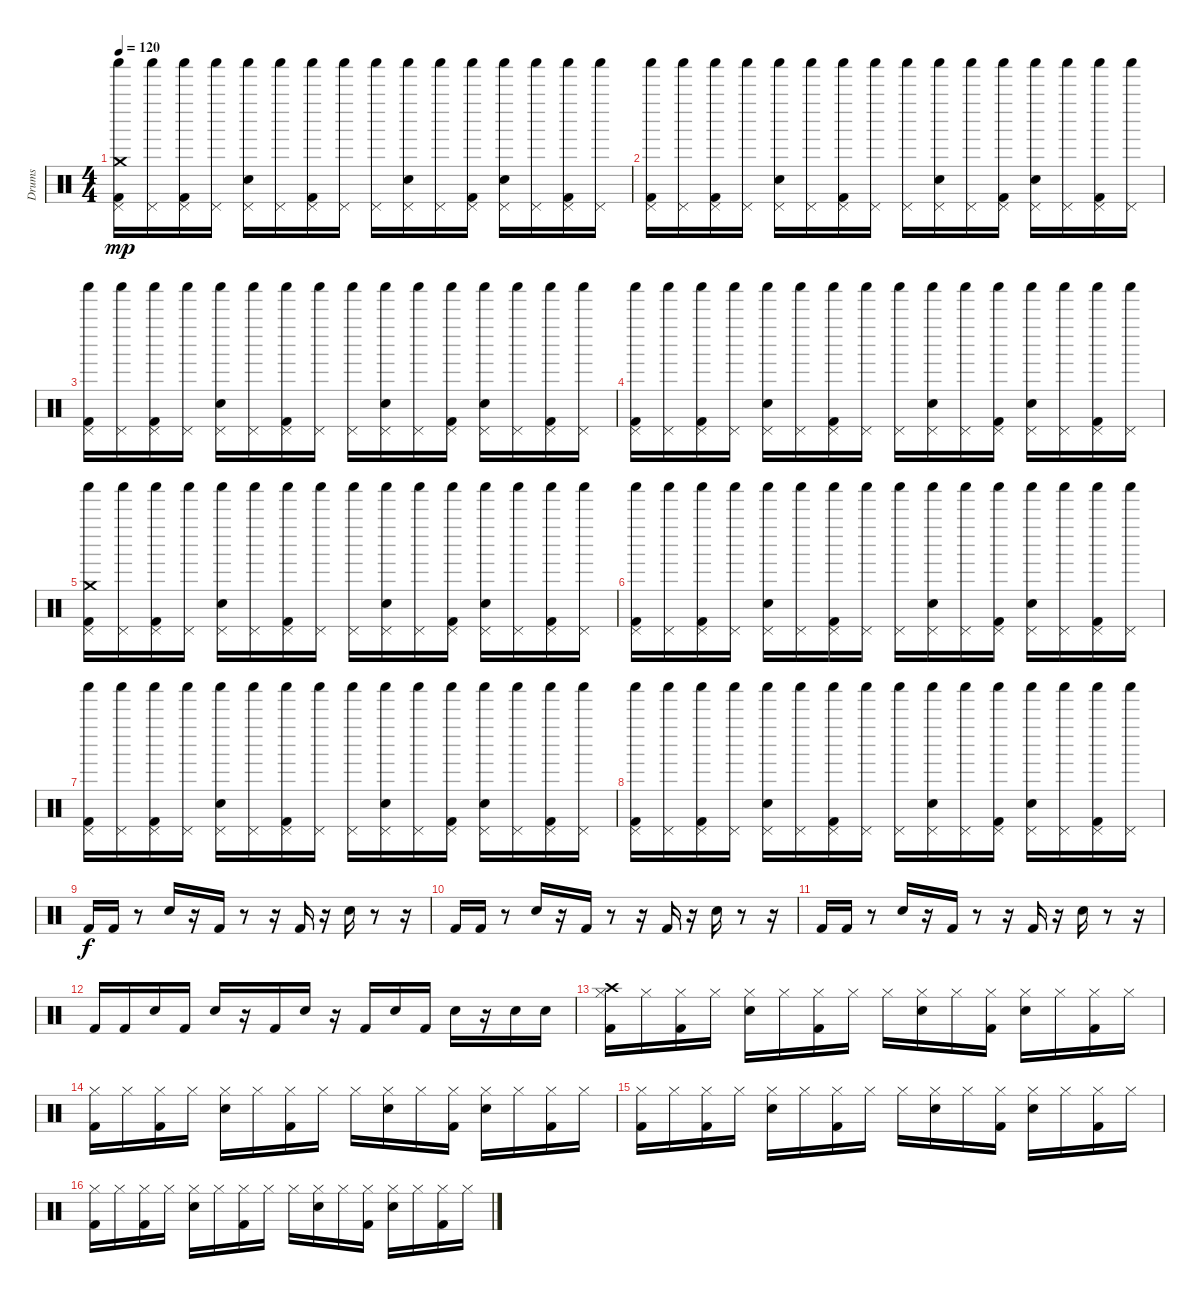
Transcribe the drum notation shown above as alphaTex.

\track ("Drums" "Drums") {instrument percussion}
\staff {score}
\articulation defaults
\ts (4 4)
\tempo 120
\clef neutral
\ks c
("Shaker (hit)" "Pedal Hi-Hat (hit)" "Crash medium (hit)" "Kick (hit) 2").16{dy mp} ("Shaker (hit)" "Pedal Hi-Hat (hit)").16 ("Shaker (hit)" "Pedal Hi-Hat (hit)" "Kick (hit) 2").16 ("Shaker (hit)" "Pedal Hi-Hat (hit)").16 ("Shaker (hit)" "Pedal Hi-Hat (hit)" "Electric Snare (hit)").16 ("Shaker (hit)" "Pedal Hi-Hat (hit)").16 ("Shaker (hit)" "Pedal Hi-Hat (hit)" "Kick (hit) 2").16 ("Shaker (hit)" "Pedal Hi-Hat (hit)").16 ("Shaker (hit)" "Pedal Hi-Hat (hit)").16 ("Shaker (hit)" "Pedal Hi-Hat (hit)" "Electric Snare (hit)").16 ("Shaker (hit)" "Pedal Hi-Hat (hit)").16 ("Shaker (hit)" "Pedal Hi-Hat (hit)" "Kick (hit) 2").16 ("Shaker (hit)" "Pedal Hi-Hat (hit)" "Electric Snare (hit)").16 ("Shaker (hit)" "Pedal Hi-Hat (hit)").16 ("Shaker (hit)" "Pedal Hi-Hat (hit)" "Kick (hit) 2").16 ("Shaker (hit)" "Pedal Hi-Hat (hit)").16 |
("Shaker (hit)" "Pedal Hi-Hat (hit)" "Kick (hit) 2").16 ("Shaker (hit)" "Pedal Hi-Hat (hit)").16 ("Shaker (hit)" "Pedal Hi-Hat (hit)" "Kick (hit) 2").16 ("Shaker (hit)" "Pedal Hi-Hat (hit)").16 ("Shaker (hit)" "Pedal Hi-Hat (hit)" "Electric Snare (hit)").16 ("Shaker (hit)" "Pedal Hi-Hat (hit)").16 ("Shaker (hit)" "Pedal Hi-Hat (hit)" "Kick (hit) 2").16 ("Shaker (hit)" "Pedal Hi-Hat (hit)").16 ("Shaker (hit)" "Pedal Hi-Hat (hit)").16 ("Shaker (hit)" "Pedal Hi-Hat (hit)" "Electric Snare (hit)").16 ("Shaker (hit)" "Pedal Hi-Hat (hit)").16 ("Shaker (hit)" "Pedal Hi-Hat (hit)" "Kick (hit) 2").16 ("Shaker (hit)" "Pedal Hi-Hat (hit)" "Electric Snare (hit)").16 ("Shaker (hit)" "Pedal Hi-Hat (hit)").16 ("Shaker (hit)" "Pedal Hi-Hat (hit)" "Kick (hit) 2").16 ("Shaker (hit)" "Pedal Hi-Hat (hit)").16 |
("Shaker (hit)" "Pedal Hi-Hat (hit)" "Kick (hit) 2").16 ("Shaker (hit)" "Pedal Hi-Hat (hit)").16 ("Shaker (hit)" "Pedal Hi-Hat (hit)" "Kick (hit) 2").16 ("Shaker (hit)" "Pedal Hi-Hat (hit)").16 ("Shaker (hit)" "Pedal Hi-Hat (hit)" "Electric Snare (hit)").16 ("Shaker (hit)" "Pedal Hi-Hat (hit)").16 ("Shaker (hit)" "Pedal Hi-Hat (hit)" "Kick (hit) 2").16 ("Shaker (hit)" "Pedal Hi-Hat (hit)").16 ("Shaker (hit)" "Pedal Hi-Hat (hit)").16 ("Shaker (hit)" "Pedal Hi-Hat (hit)" "Electric Snare (hit)").16 ("Shaker (hit)" "Pedal Hi-Hat (hit)").16 ("Shaker (hit)" "Pedal Hi-Hat (hit)" "Kick (hit) 2").16 ("Shaker (hit)" "Pedal Hi-Hat (hit)" "Electric Snare (hit)").16 ("Shaker (hit)" "Pedal Hi-Hat (hit)").16 ("Shaker (hit)" "Pedal Hi-Hat (hit)" "Kick (hit) 2").16 ("Shaker (hit)" "Pedal Hi-Hat (hit)").16 |
("Shaker (hit)" "Pedal Hi-Hat (hit)" "Kick (hit) 2").16 ("Shaker (hit)" "Pedal Hi-Hat (hit)").16 ("Shaker (hit)" "Pedal Hi-Hat (hit)" "Kick (hit) 2").16 ("Shaker (hit)" "Pedal Hi-Hat (hit)").16 ("Shaker (hit)" "Pedal Hi-Hat (hit)" "Electric Snare (hit)").16 ("Shaker (hit)" "Pedal Hi-Hat (hit)").16 ("Shaker (hit)" "Pedal Hi-Hat (hit)" "Kick (hit) 2").16 ("Shaker (hit)" "Pedal Hi-Hat (hit)").16 ("Shaker (hit)" "Pedal Hi-Hat (hit)").16 ("Shaker (hit)" "Pedal Hi-Hat (hit)" "Electric Snare (hit)").16 ("Shaker (hit)" "Pedal Hi-Hat (hit)").16 ("Shaker (hit)" "Pedal Hi-Hat (hit)" "Kick (hit) 2").16 ("Shaker (hit)" "Pedal Hi-Hat (hit)" "Electric Snare (hit)").16 ("Shaker (hit)" "Pedal Hi-Hat (hit)").16 ("Shaker (hit)" "Pedal Hi-Hat (hit)" "Kick (hit) 2").16 ("Shaker (hit)" "Pedal Hi-Hat (hit)").16 |
("Shaker (hit)" "Pedal Hi-Hat (hit)" "Crash medium (hit)" "Kick (hit) 2").16 ("Shaker (hit)" "Pedal Hi-Hat (hit)").16 ("Shaker (hit)" "Pedal Hi-Hat (hit)" "Kick (hit) 2").16 ("Shaker (hit)" "Pedal Hi-Hat (hit)").16 ("Shaker (hit)" "Pedal Hi-Hat (hit)" "Electric Snare (hit)").16 ("Shaker (hit)" "Pedal Hi-Hat (hit)").16 ("Shaker (hit)" "Pedal Hi-Hat (hit)" "Kick (hit) 2").16 ("Shaker (hit)" "Pedal Hi-Hat (hit)").16 ("Shaker (hit)" "Pedal Hi-Hat (hit)").16 ("Shaker (hit)" "Pedal Hi-Hat (hit)" "Electric Snare (hit)").16 ("Shaker (hit)" "Pedal Hi-Hat (hit)").16 ("Shaker (hit)" "Pedal Hi-Hat (hit)" "Kick (hit) 2").16 ("Shaker (hit)" "Pedal Hi-Hat (hit)" "Electric Snare (hit)").16 ("Shaker (hit)" "Pedal Hi-Hat (hit)").16 ("Shaker (hit)" "Pedal Hi-Hat (hit)" "Kick (hit) 2").16 ("Shaker (hit)" "Pedal Hi-Hat (hit)").16 |
("Shaker (hit)" "Pedal Hi-Hat (hit)" "Kick (hit) 2").16 ("Shaker (hit)" "Pedal Hi-Hat (hit)").16 ("Shaker (hit)" "Pedal Hi-Hat (hit)" "Kick (hit) 2").16 ("Shaker (hit)" "Pedal Hi-Hat (hit)").16 ("Shaker (hit)" "Pedal Hi-Hat (hit)" "Electric Snare (hit)").16 ("Shaker (hit)" "Pedal Hi-Hat (hit)").16 ("Shaker (hit)" "Pedal Hi-Hat (hit)" "Kick (hit) 2").16 ("Shaker (hit)" "Pedal Hi-Hat (hit)").16 ("Shaker (hit)" "Pedal Hi-Hat (hit)").16 ("Shaker (hit)" "Pedal Hi-Hat (hit)" "Electric Snare (hit)").16 ("Shaker (hit)" "Pedal Hi-Hat (hit)").16 ("Shaker (hit)" "Pedal Hi-Hat (hit)" "Kick (hit) 2").16 ("Shaker (hit)" "Pedal Hi-Hat (hit)" "Electric Snare (hit)").16 ("Shaker (hit)" "Pedal Hi-Hat (hit)").16 ("Shaker (hit)" "Pedal Hi-Hat (hit)" "Kick (hit) 2").16 ("Shaker (hit)" "Pedal Hi-Hat (hit)").16 |
("Shaker (hit)" "Pedal Hi-Hat (hit)" "Kick (hit) 2").16 ("Shaker (hit)" "Pedal Hi-Hat (hit)").16 ("Shaker (hit)" "Pedal Hi-Hat (hit)" "Kick (hit) 2").16 ("Shaker (hit)" "Pedal Hi-Hat (hit)").16 ("Shaker (hit)" "Pedal Hi-Hat (hit)" "Electric Snare (hit)").16 ("Shaker (hit)" "Pedal Hi-Hat (hit)").16 ("Shaker (hit)" "Pedal Hi-Hat (hit)" "Kick (hit) 2").16 ("Shaker (hit)" "Pedal Hi-Hat (hit)").16 ("Shaker (hit)" "Pedal Hi-Hat (hit)").16 ("Shaker (hit)" "Pedal Hi-Hat (hit)" "Electric Snare (hit)").16 ("Shaker (hit)" "Pedal Hi-Hat (hit)").16 ("Shaker (hit)" "Pedal Hi-Hat (hit)" "Kick (hit) 2").16 ("Shaker (hit)" "Pedal Hi-Hat (hit)" "Electric Snare (hit)").16 ("Shaker (hit)" "Pedal Hi-Hat (hit)").16 ("Shaker (hit)" "Pedal Hi-Hat (hit)" "Kick (hit) 2").16 ("Shaker (hit)" "Pedal Hi-Hat (hit)").16 |
("Shaker (hit)" "Pedal Hi-Hat (hit)" "Kick (hit) 2").16 ("Shaker (hit)" "Pedal Hi-Hat (hit)").16 ("Shaker (hit)" "Pedal Hi-Hat (hit)" "Kick (hit) 2").16 ("Shaker (hit)" "Pedal Hi-Hat (hit)").16 ("Shaker (hit)" "Pedal Hi-Hat (hit)" "Electric Snare (hit)").16 ("Shaker (hit)" "Pedal Hi-Hat (hit)").16 ("Shaker (hit)" "Pedal Hi-Hat (hit)" "Kick (hit) 2").16 ("Shaker (hit)" "Pedal Hi-Hat (hit)").16 ("Shaker (hit)" "Pedal Hi-Hat (hit)").16 ("Shaker (hit)" "Pedal Hi-Hat (hit)" "Electric Snare (hit)").16 ("Shaker (hit)" "Pedal Hi-Hat (hit)").16 ("Shaker (hit)" "Pedal Hi-Hat (hit)" "Kick (hit) 2").16 ("Shaker (hit)" "Pedal Hi-Hat (hit)" "Electric Snare (hit)").16 ("Shaker (hit)" "Pedal Hi-Hat (hit)").16 ("Shaker (hit)" "Pedal Hi-Hat (hit)" "Kick (hit) 2").16 ("Shaker (hit)" "Pedal Hi-Hat (hit)").16 |
"Kick (hit) 2".16{dy f} "Kick (hit) 2".16 r.8 "Electric Snare (hit)".16 r.16 "Kick (hit) 2".16 r.8 r.16 "Kick (hit) 2".16 r.16 "Electric Snare (hit)".16 r.8 r.16 |
"Kick (hit) 2".16 "Kick (hit) 2".16 r.8 "Electric Snare (hit)".16 r.16 "Kick (hit) 2".16 r.8 r.16 "Kick (hit) 2".16 r.16 "Electric Snare (hit)".16 r.8 r.16 |
"Kick (hit) 2".16 "Kick (hit) 2".16 r.8 "Electric Snare (hit)".16 r.16 "Kick (hit) 2".16 r.8 r.16 "Kick (hit) 2".16 r.16 "Electric Snare (hit)".16 r.8 r.16 |
"Kick (hit) 2".16 "Kick (hit) 2".16 "Electric Snare (hit)".16 "Kick (hit) 2".16 "Electric Snare (hit)".16 r.16 "Kick (hit) 2".16 "Electric Snare (hit)".16 r.16 "Kick (hit) 2".16 "Electric Snare (hit)".16 "Kick (hit) 2".16 "Electric Snare (hit)".16 r.16 "Electric Snare (hit)".16 "Electric Snare (hit)".16 |
("Hi-Hat (closed)" "Crash high (hit)" "Kick (hit) 2").16 "Hi-Hat (closed)".16 ("Hi-Hat (closed)" "Kick (hit) 2").16 "Hi-Hat (closed)".16 ("Hi-Hat (closed)" "Electric Snare (hit)").16 "Hi-Hat (closed)".16 ("Hi-Hat (closed)" "Kick (hit) 2").16 "Hi-Hat (closed)".16 "Hi-Hat (closed)".16 ("Hi-Hat (closed)" "Electric Snare (hit)").16 "Hi-Hat (closed)".16 ("Hi-Hat (closed)" "Kick (hit) 2").16 ("Hi-Hat (closed)" "Electric Snare (hit)").16 "Hi-Hat (closed)".16 ("Hi-Hat (closed)" "Kick (hit) 2").16 "Hi-Hat (closed)".16 |
("Hi-Hat (closed)" "Kick (hit) 2").16 "Hi-Hat (closed)".16 ("Hi-Hat (closed)" "Kick (hit) 2").16 "Hi-Hat (closed)".16 ("Hi-Hat (closed)" "Electric Snare (hit)").16 "Hi-Hat (closed)".16 ("Hi-Hat (closed)" "Kick (hit) 2").16 "Hi-Hat (closed)".16 "Hi-Hat (closed)".16 ("Hi-Hat (closed)" "Electric Snare (hit)").16 "Hi-Hat (closed)".16 ("Hi-Hat (closed)" "Kick (hit) 2").16 ("Hi-Hat (closed)" "Electric Snare (hit)").16 "Hi-Hat (closed)".16 ("Hi-Hat (closed)" "Kick (hit) 2").16 "Hi-Hat (closed)".16 |
("Hi-Hat (closed)" "Kick (hit) 2").16 "Hi-Hat (closed)".16 ("Hi-Hat (closed)" "Kick (hit) 2").16 "Hi-Hat (closed)".16 ("Hi-Hat (closed)" "Electric Snare (hit)").16 "Hi-Hat (closed)".16 ("Hi-Hat (closed)" "Kick (hit) 2").16 "Hi-Hat (closed)".16 "Hi-Hat (closed)".16 ("Hi-Hat (closed)" "Electric Snare (hit)").16 "Hi-Hat (closed)".16 ("Hi-Hat (closed)" "Kick (hit) 2").16 ("Hi-Hat (closed)" "Electric Snare (hit)").16 "Hi-Hat (closed)".16 ("Hi-Hat (closed)" "Kick (hit) 2").16 "Hi-Hat (closed)".16 |
("Hi-Hat (closed)" "Kick (hit) 2").16 "Hi-Hat (closed)".16 ("Hi-Hat (closed)" "Kick (hit) 2").16 "Hi-Hat (closed)".16 ("Hi-Hat (closed)" "Electric Snare (hit)").16 "Hi-Hat (closed)".16 ("Hi-Hat (closed)" "Kick (hit) 2").16 "Hi-Hat (closed)".16 "Hi-Hat (closed)".16 ("Hi-Hat (closed)" "Electric Snare (hit)").16 "Hi-Hat (closed)".16 ("Hi-Hat (closed)" "Kick (hit) 2").16 ("Hi-Hat (closed)" "Electric Snare (hit)").16 "Hi-Hat (closed)".16 ("Hi-Hat (closed)" "Kick (hit) 2").16 "Hi-Hat (closed)".16
